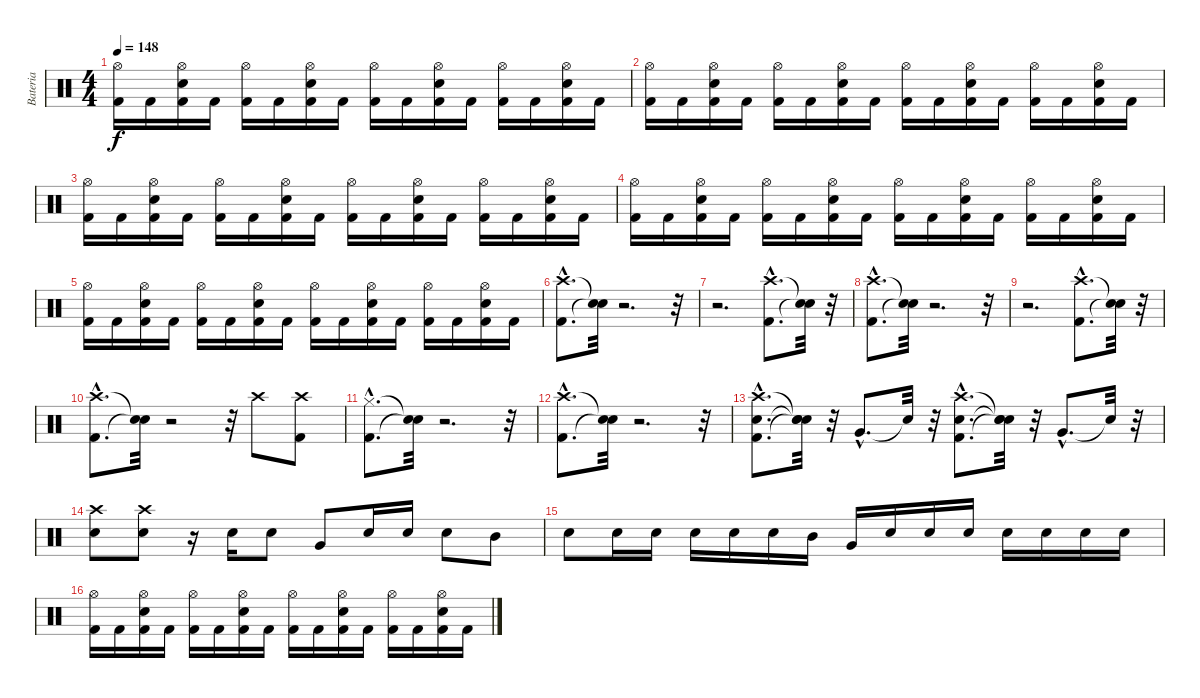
\track ("Bateria" "Bateria") {instrument percussion}
\staff {score}
\articulation defaults
\ts (4 4)
\tempo 148
\clef neutral
\ks c
("Kick (hit) 2" "Hi-Hat (open)").16{dy f} "Kick (hit) 2".16 ("Kick (hit) 2" "Snare (hit) 2" "Hi-Hat (open)").16 "Kick (hit) 2".16 ("Kick (hit) 2" "Hi-Hat (open)").16 "Kick (hit) 2".16 ("Kick (hit) 2" "Snare (hit) 2" "Hi-Hat (open)").16 "Kick (hit) 2".16 ("Kick (hit) 2" "Hi-Hat (open)").16 "Kick (hit) 2".16 ("Kick (hit) 2" "Snare (hit) 2" "Hi-Hat (open)").16 "Kick (hit) 2".16 ("Kick (hit) 2" "Hi-Hat (open)").16 "Kick (hit) 2".16 ("Kick (hit) 2" "Snare (hit) 2" "Hi-Hat (open)").16 "Kick (hit) 2".16 |
("Kick (hit) 2" "Hi-Hat (open)").16 "Kick (hit) 2".16 ("Kick (hit) 2" "Snare (hit) 2" "Hi-Hat (open)").16 "Kick (hit) 2".16 ("Kick (hit) 2" "Hi-Hat (open)").16 "Kick (hit) 2".16 ("Kick (hit) 2" "Snare (hit) 2" "Hi-Hat (open)").16 "Kick (hit) 2".16 ("Kick (hit) 2" "Hi-Hat (open)").16 "Kick (hit) 2".16 ("Kick (hit) 2" "Snare (hit) 2" "Hi-Hat (open)").16 "Kick (hit) 2".16 ("Kick (hit) 2" "Hi-Hat (open)").16 "Kick (hit) 2".16 ("Kick (hit) 2" "Snare (hit) 2" "Hi-Hat (open)").16 "Kick (hit) 2".16 |
("Kick (hit) 2" "Hi-Hat (open)").16 "Kick (hit) 2".16 ("Kick (hit) 2" "Snare (hit) 2" "Hi-Hat (open)").16 "Kick (hit) 2".16 ("Kick (hit) 2" "Hi-Hat (open)").16 "Kick (hit) 2".16 ("Kick (hit) 2" "Snare (hit) 2" "Hi-Hat (open)").16 "Kick (hit) 2".16 ("Kick (hit) 2" "Hi-Hat (open)").16 "Kick (hit) 2".16 ("Kick (hit) 2" "Snare (hit) 2" "Hi-Hat (open)").16 "Kick (hit) 2".16 ("Kick (hit) 2" "Hi-Hat (open)").16 "Kick (hit) 2".16 ("Kick (hit) 2" "Snare (hit) 2" "Hi-Hat (open)").16 "Kick (hit) 2".16 |
("Kick (hit) 2" "Hi-Hat (open)").16 "Kick (hit) 2".16 ("Kick (hit) 2" "Snare (hit) 2" "Hi-Hat (open)").16 "Kick (hit) 2".16 ("Kick (hit) 2" "Hi-Hat (open)").16 "Kick (hit) 2".16 ("Kick (hit) 2" "Snare (hit) 2" "Hi-Hat (open)").16 "Kick (hit) 2".16 ("Kick (hit) 2" "Hi-Hat (open)").16 "Kick (hit) 2".16 ("Kick (hit) 2" "Snare (hit) 2" "Hi-Hat (open)").16 "Kick (hit) 2".16 ("Kick (hit) 2" "Hi-Hat (open)").16 "Kick (hit) 2".16 ("Kick (hit) 2" "Snare (hit) 2" "Hi-Hat (open)").16 "Kick (hit) 2".16 |
("Kick (hit) 2" "Hi-Hat (open)").16 "Kick (hit) 2".16 ("Kick (hit) 2" "Snare (hit) 2" "Hi-Hat (open)").16 "Kick (hit) 2".16 ("Kick (hit) 2" "Hi-Hat (open)").16 "Kick (hit) 2".16 ("Kick (hit) 2" "Snare (hit) 2" "Hi-Hat (open)").16 "Kick (hit) 2".16 ("Kick (hit) 2" "Hi-Hat (open)").16 "Kick (hit) 2".16 ("Kick (hit) 2" "Snare (hit) 2" "Hi-Hat (open)").16 "Kick (hit) 2".16 ("Kick (hit) 2" "Hi-Hat (open)").16 "Kick (hit) 2".16 ("Kick (hit) 2" "Snare (hit) 2" "Hi-Hat (open)").16 "Kick (hit) 2".16 |
("Kick (hit) 2"{hac} "Crash high (hit)"{hac}).8{d} ("Snare (hit)"{t} "Snare (hit)"{t}).32 r.2{d} r.32 |
r.2{d} ("Kick (hit) 2"{hac} "Crash high (hit)"{hac}).8{d} ("Snare (hit)"{t} "Snare (hit)"{t}).32 r.32 |
("Kick (hit) 2"{hac} "Crash high (hit)"{hac}).8{d} ("Snare (hit)"{t} "Snare (hit)"{t}).32 r.2{d} r.32 |
r.2{d} ("Kick (hit) 2"{hac} "Crash high (hit)"{hac}).8{d} ("Snare (hit)"{t} "Snare (hit)"{t}).32 r.32 |
("Kick (hit) 2"{hac} "Crash high (hit)"{hac}).8{d} ("Snare (hit)"{t} "Snare (hit)"{t}).32 r.2 r.32 "Crash high (hit)".8 ("Crash high (hit)" "Kick (hit) 2").8 |
("Kick (hit) 2"{hac} "Hi-Hat (closed)"{hac}).8{d} ("Snare (hit)"{t} "Snare (hit)"{t}).32 r.2{d} r.32 |
("Kick (hit) 2"{hac} "Crash high (hit)"{hac}).8{d} ("Snare (hit)"{t} "Snare (hit)"{t}).32 r.2{d} r.32 |
("Kick (hit) 2"{hac} "Snare (hit) 2"{hac} "Crash high (hit)"{hac}).8{d} ("Snare (hit)"{t} "Snare (hit)"{t} "Snare (hit)"{t}).32 r.32 "Very Low Tom (hit)"{hac}.8{d} "Snare (hit)"{t}.32 r.32 ("Snare (hit) 2"{hac} "Kick (hit) 2"{hac} "Crash high (hit)"{hac}).8{d} ("Snare (hit)"{t} "Snare (hit)"{t} "Snare (hit)"{t}).32 r.32 "Very Low Tom (hit)"{hac}.8{d} "Snare (hit)"{t}.32 r.32 |
("Snare (hit) 2" "Crash high (hit)").8 ("Snare (hit) 2" "Crash high (hit)").8 r.16 "Snare (hit) 2".16 "Snare (hit) 2".8 "Very Low Tom (hit)".8 "Snare (hit) 2".16 "Snare (hit) 2".16 "Snare (hit) 2".8 "Mid Tom (hit)".8 |
"Snare (hit) 2".8 "Snare (hit) 2".16 "Snare (hit) 2".16 "Snare (hit) 2".16 "Snare (hit) 2".16 "Snare (hit) 2".16 "Mid Tom (hit)".16 "Very Low Tom (hit)".16 "Snare (hit) 2".16 "Snare (hit) 2".16 "Snare (hit) 2".16 "Snare (hit) 2".16 "Snare (hit) 2".16 "Snare (hit) 2".16 "Snare (hit) 2".16 |
("Kick (hit) 2" "Hi-Hat (open)").16 "Kick (hit) 2".16 ("Kick (hit) 2" "Snare (hit) 2" "Hi-Hat (open)").16 "Kick (hit) 2".16 ("Kick (hit) 2" "Hi-Hat (open)").16 "Kick (hit) 2".16 ("Kick (hit) 2" "Snare (hit) 2" "Hi-Hat (open)").16 "Kick (hit) 2".16 ("Kick (hit) 2" "Hi-Hat (open)").16 "Kick (hit) 2".16 ("Kick (hit) 2" "Snare (hit) 2" "Hi-Hat (open)").16 "Kick (hit) 2".16 ("Kick (hit) 2" "Hi-Hat (open)").16 "Kick (hit) 2".16 ("Kick (hit) 2" "Snare (hit) 2" "Hi-Hat (open)").16 "Kick (hit) 2".16
